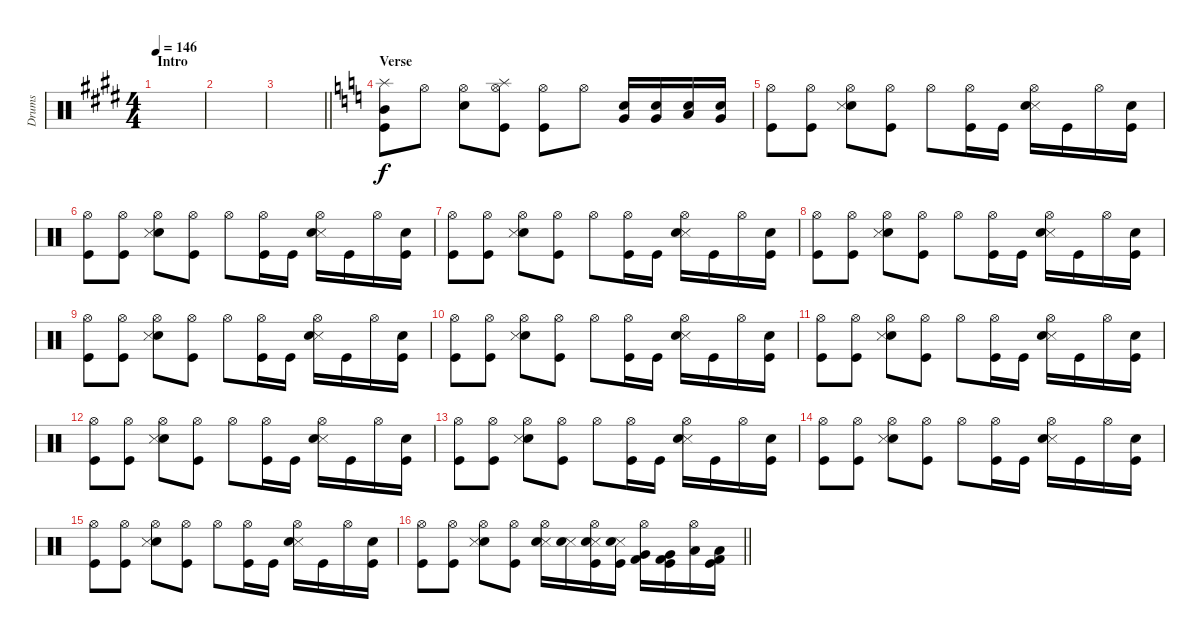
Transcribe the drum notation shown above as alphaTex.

\track ("Drums" "Drums") {instrument percussion}
\staff {score}
\articulation defaults
\ts (4 4)
\section ("" "Intro")
\tempo 146
\clef neutral
\ks e
|
\ks c#minor
|
\barLineRight lightlight
|
\section ("" "Verse")
\ks c
("Splash (hit)" "Mid Tom (hit)" "Kick (hit)").8 "Hi-Hat (open)".8 ("Hi-Hat (open)" "Snare (hit) 2").8 ("Splash (hit)" "Hi-Hat (open)" "Kick (hit)").8 ("Hi-Hat (open)" "Kick (hit)").8 "Hi-Hat (open)".8 ("Snare (hit) 2" "Very Low Tom (hit)").16 ("Snare (hit) 2" "Very Low Tom (hit)").16 ("Snare (hit) 2" "Low Tom (hit)").16 ("Snare (hit) 2" "Very Low Tom (hit)").16 |
("Kick (hit)" "Hi-Hat (open)").8 ("Kick (hit)" "Hi-Hat (open)").8 ("Electric Snare (hit)" "Snare (side stick) 3" "Hi-Hat (open)").8 ("Kick (hit)" "Hi-Hat (open)").8 "Hi-Hat (open)".8 ("Kick (hit)" "Hi-Hat (open)").16 "Kick (hit)".16 ("Snare (side stick) 3" "Electric Snare (hit)" "Hi-Hat (open)").16 "Kick (hit)".16 "Hi-Hat (open)".16 ("Kick (hit)" "Electric Snare (hit)").16 |
("Kick (hit)" "Hi-Hat (open)").8 ("Kick (hit)" "Hi-Hat (open)").8 ("Electric Snare (hit)" "Snare (side stick) 3" "Hi-Hat (open)").8 ("Kick (hit)" "Hi-Hat (open)").8 "Hi-Hat (open)".8 ("Kick (hit)" "Hi-Hat (open)").16 "Kick (hit)".16 ("Snare (side stick) 3" "Electric Snare (hit)" "Hi-Hat (open)").16 "Kick (hit)".16 "Hi-Hat (open)".16 ("Kick (hit)" "Electric Snare (hit)").16 |
("Kick (hit)" "Hi-Hat (open)").8 ("Kick (hit)" "Hi-Hat (open)").8 ("Electric Snare (hit)" "Snare (side stick) 3" "Hi-Hat (open)").8 ("Kick (hit)" "Hi-Hat (open)").8 "Hi-Hat (open)".8 ("Kick (hit)" "Hi-Hat (open)").16 "Kick (hit)".16 ("Snare (side stick) 3" "Electric Snare (hit)" "Hi-Hat (open)").16 "Kick (hit)".16 "Hi-Hat (open)".16 ("Kick (hit)" "Electric Snare (hit)").16 |
("Kick (hit)" "Hi-Hat (open)").8 ("Kick (hit)" "Hi-Hat (open)").8 ("Electric Snare (hit)" "Snare (side stick) 3" "Hi-Hat (open)").8 ("Kick (hit)" "Hi-Hat (open)").8 "Hi-Hat (open)".8 ("Kick (hit)" "Hi-Hat (open)").16 "Kick (hit)".16 ("Snare (side stick) 3" "Electric Snare (hit)" "Hi-Hat (open)").16 "Kick (hit)".16 "Hi-Hat (open)".16 ("Kick (hit)" "Electric Snare (hit)").16 |
("Kick (hit)" "Hi-Hat (open)").8 ("Kick (hit)" "Hi-Hat (open)").8 ("Electric Snare (hit)" "Snare (side stick) 3" "Hi-Hat (open)").8 ("Kick (hit)" "Hi-Hat (open)").8 "Hi-Hat (open)".8 ("Kick (hit)" "Hi-Hat (open)").16 "Kick (hit)".16 ("Snare (side stick) 3" "Electric Snare (hit)" "Hi-Hat (open)").16 "Kick (hit)".16 "Hi-Hat (open)".16 ("Kick (hit)" "Electric Snare (hit)").16 |
("Kick (hit)" "Hi-Hat (open)").8 ("Kick (hit)" "Hi-Hat (open)").8 ("Electric Snare (hit)" "Snare (side stick) 3" "Hi-Hat (open)").8 ("Kick (hit)" "Hi-Hat (open)").8 "Hi-Hat (open)".8 ("Kick (hit)" "Hi-Hat (open)").16 "Kick (hit)".16 ("Snare (side stick) 3" "Electric Snare (hit)" "Hi-Hat (open)").16 "Kick (hit)".16 "Hi-Hat (open)".16 ("Kick (hit)" "Electric Snare (hit)").16 |
("Kick (hit)" "Hi-Hat (open)").8 ("Kick (hit)" "Hi-Hat (open)").8 ("Electric Snare (hit)" "Snare (side stick) 3" "Hi-Hat (open)").8 ("Kick (hit)" "Hi-Hat (open)").8 "Hi-Hat (open)".8 ("Kick (hit)" "Hi-Hat (open)").16 "Kick (hit)".16 ("Snare (side stick) 3" "Electric Snare (hit)" "Hi-Hat (open)").16 "Kick (hit)".16 "Hi-Hat (open)".16 ("Kick (hit)" "Electric Snare (hit)").16 |
("Kick (hit)" "Hi-Hat (open)").8 ("Kick (hit)" "Hi-Hat (open)").8 ("Electric Snare (hit)" "Snare (side stick) 3" "Hi-Hat (open)").8 ("Kick (hit)" "Hi-Hat (open)").8 "Hi-Hat (open)".8 ("Kick (hit)" "Hi-Hat (open)").16 "Kick (hit)".16 ("Snare (side stick) 3" "Electric Snare (hit)" "Hi-Hat (open)").16 "Kick (hit)".16 "Hi-Hat (open)".16 ("Kick (hit)" "Electric Snare (hit)").16 |
("Kick (hit)" "Hi-Hat (open)").8 ("Kick (hit)" "Hi-Hat (open)").8 ("Electric Snare (hit)" "Snare (side stick) 3" "Hi-Hat (open)").8 ("Kick (hit)" "Hi-Hat (open)").8 "Hi-Hat (open)".8 ("Kick (hit)" "Hi-Hat (open)").16 "Kick (hit)".16 ("Snare (side stick) 3" "Electric Snare (hit)" "Hi-Hat (open)").16 "Kick (hit)".16 "Hi-Hat (open)".16 ("Kick (hit)" "Electric Snare (hit)").16 |
("Kick (hit)" "Hi-Hat (open)").8 ("Kick (hit)" "Hi-Hat (open)").8 ("Electric Snare (hit)" "Snare (side stick) 3" "Hi-Hat (open)").8 ("Kick (hit)" "Hi-Hat (open)").8 "Hi-Hat (open)".8 ("Kick (hit)" "Hi-Hat (open)").16 "Kick (hit)".16 ("Snare (side stick) 3" "Electric Snare (hit)" "Hi-Hat (open)").16 "Kick (hit)".16 "Hi-Hat (open)".16 ("Kick (hit)" "Electric Snare (hit)").16 |
("Kick (hit)" "Hi-Hat (open)").8 ("Kick (hit)" "Hi-Hat (open)").8 ("Electric Snare (hit)" "Snare (side stick) 3" "Hi-Hat (open)").8 ("Kick (hit)" "Hi-Hat (open)").8 "Hi-Hat (open)".8 ("Kick (hit)" "Hi-Hat (open)").16 "Kick (hit)".16 ("Snare (side stick) 3" "Electric Snare (hit)" "Hi-Hat (open)").16 "Kick (hit)".16 "Hi-Hat (open)".16 ("Kick (hit)" "Electric Snare (hit)").16 |
\barLineRight lightlight
("Kick (hit)" "Hi-Hat (open)").8 ("Kick (hit)" "Hi-Hat (open)").8 ("Electric Snare (hit)" "Snare (side stick) 3" "Hi-Hat (open)").8 ("Kick (hit)" "Hi-Hat (open)").8 ("Hi-Hat (open)" "Snare (side stick) 3" "Electric Snare (hit)").16 ("Snare (side stick) 3" "Electric Snare (hit)").16 ("Snare (side stick) 3" "Electric Snare (hit)" "Kick (hit)" "Hi-Hat (open)").16 ("Snare (side stick) 3" "Electric Snare (hit)" "Kick (hit)").16 ("Very Low Tom (hit)" "Kick (hit) 2" "Hi-Hat (open)").16 ("Very Low Tom (hit)" "Kick (hit) 2" "Kick (hit)").16 ("Low Floor Tom (hit)" "Hi-Hat (open)").16 ("Low Floor Tom (hit)" "Kick (hit) 2" "Kick (hit)").16
